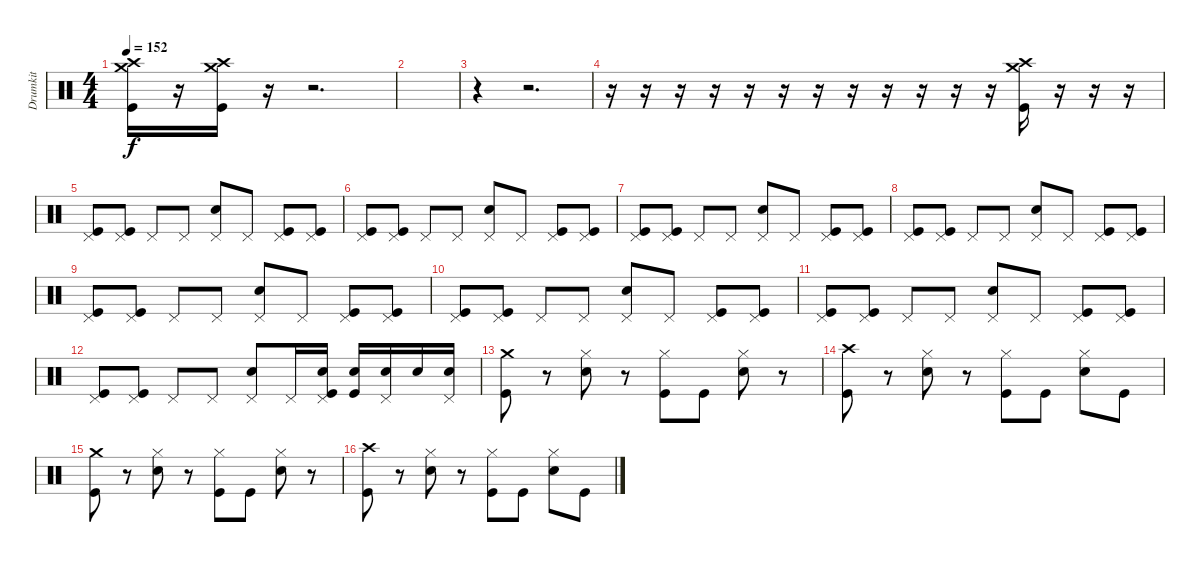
\track ("Drumkit" "Drumkit") {instrument percussion}
\staff {score}
\articulation defaults
\ts (4 4)
\tempo 152
\clef neutral
\ks c
("Crash high (hit)" "Crash medium (hit)" "Kick (hit)").16{dy f} r.16 ("Crash high (hit)" "Crash medium (hit)" "Kick (hit)").16 r.16 r.2{d} |
|
r.4 r.2{d} |
r.16 r.16 r.16 r.16 r.16 r.16 r.16 r.16 r.16 r.16 r.16 r.16 ("Crash high (hit)" "Crash medium (hit)" "Kick (hit)").16 r.16 r.16 r.16 |
("Pedal Hi-Hat (hit)" "Kick (hit)").8 ("Pedal Hi-Hat (hit)" "Kick (hit)").8 "Pedal Hi-Hat (hit)".8 "Pedal Hi-Hat (hit)".8 ("Pedal Hi-Hat (hit)" "Snare (hit) 2").8 "Pedal Hi-Hat (hit)".8 ("Pedal Hi-Hat (hit)" "Kick (hit)").8 ("Pedal Hi-Hat (hit)" "Kick (hit)").8 |
("Pedal Hi-Hat (hit)" "Kick (hit)").8 ("Pedal Hi-Hat (hit)" "Kick (hit)").8 "Pedal Hi-Hat (hit)".8 "Pedal Hi-Hat (hit)".8 ("Pedal Hi-Hat (hit)" "Snare (hit) 2").8 "Pedal Hi-Hat (hit)".8 ("Pedal Hi-Hat (hit)" "Kick (hit)").8 ("Pedal Hi-Hat (hit)" "Kick (hit)").8 |
("Pedal Hi-Hat (hit)" "Kick (hit)").8 ("Pedal Hi-Hat (hit)" "Kick (hit)").8 "Pedal Hi-Hat (hit)".8 "Pedal Hi-Hat (hit)".8 ("Pedal Hi-Hat (hit)" "Snare (hit) 2").8 "Pedal Hi-Hat (hit)".8 ("Pedal Hi-Hat (hit)" "Kick (hit)").8 ("Pedal Hi-Hat (hit)" "Kick (hit)").8 |
("Pedal Hi-Hat (hit)" "Kick (hit)").8 ("Pedal Hi-Hat (hit)" "Kick (hit)").8 "Pedal Hi-Hat (hit)".8 "Pedal Hi-Hat (hit)".8 ("Pedal Hi-Hat (hit)" "Snare (hit) 2").8 "Pedal Hi-Hat (hit)".8 ("Pedal Hi-Hat (hit)" "Kick (hit)").8 ("Pedal Hi-Hat (hit)" "Kick (hit)").8 |
("Pedal Hi-Hat (hit)" "Kick (hit)").8 ("Pedal Hi-Hat (hit)" "Kick (hit)").8 "Pedal Hi-Hat (hit)".8 "Pedal Hi-Hat (hit)".8 ("Pedal Hi-Hat (hit)" "Snare (hit) 2").8 "Pedal Hi-Hat (hit)".8 ("Pedal Hi-Hat (hit)" "Kick (hit)").8 ("Pedal Hi-Hat (hit)" "Kick (hit)").8 |
("Pedal Hi-Hat (hit)" "Kick (hit)").8 ("Pedal Hi-Hat (hit)" "Kick (hit)").8 "Pedal Hi-Hat (hit)".8 "Pedal Hi-Hat (hit)".8 ("Pedal Hi-Hat (hit)" "Snare (hit) 2").8 "Pedal Hi-Hat (hit)".8 ("Pedal Hi-Hat (hit)" "Kick (hit)").8 ("Pedal Hi-Hat (hit)" "Kick (hit)").8 |
("Pedal Hi-Hat (hit)" "Kick (hit)").8 ("Pedal Hi-Hat (hit)" "Kick (hit)").8 "Pedal Hi-Hat (hit)".8 "Pedal Hi-Hat (hit)".8 ("Pedal Hi-Hat (hit)" "Snare (hit) 2").8 "Pedal Hi-Hat (hit)".8 ("Pedal Hi-Hat (hit)" "Kick (hit)").8 ("Pedal Hi-Hat (hit)" "Kick (hit)").8 |
("Pedal Hi-Hat (hit)" "Kick (hit)").8 ("Pedal Hi-Hat (hit)" "Kick (hit)").8 "Pedal Hi-Hat (hit)".8 "Pedal Hi-Hat (hit)".8 ("Pedal Hi-Hat (hit)" "Snare (hit) 2").8 "Pedal Hi-Hat (hit)".16 ("Pedal Hi-Hat (hit)" "Snare (hit) 2" "Kick (hit)").16 ("Snare (hit) 2" "Kick (hit)").16 ("Pedal Hi-Hat (hit)" "Snare (hit) 2").16 "Snare (hit) 2".16 ("Pedal Hi-Hat (hit)" "Snare (hit) 2").16 |
("Crash medium (hit)" "Kick (hit)").8 r.8 ("Hi-Hat (closed)" "Snare (hit) 2").8 r.8 ("Hi-Hat (closed)" "Kick (hit)").8 "Kick (hit)".8 ("Hi-Hat (closed)" "Snare (hit) 2").8 r.8 |
("Crash high (hit)" "Kick (hit)").8 r.8 ("Hi-Hat (closed)" "Snare (hit) 2").8 r.8 ("Hi-Hat (closed)" "Kick (hit)").8 "Kick (hit)".8 ("Hi-Hat (closed)" "Snare (hit) 2").8 "Kick (hit)".8 |
("Crash medium (hit)" "Kick (hit)").8 r.8 ("Hi-Hat (closed)" "Snare (hit) 2").8 r.8 ("Hi-Hat (closed)" "Kick (hit)").8 "Kick (hit)".8 ("Hi-Hat (closed)" "Snare (hit) 2").8 r.8 |
("Crash high (hit)" "Kick (hit)").8 r.8 ("Hi-Hat (closed)" "Snare (hit) 2").8 r.8 ("Hi-Hat (closed)" "Kick (hit)").8 "Kick (hit)".8 ("Hi-Hat (closed)" "Snare (hit) 2").8 "Kick (hit)".8
